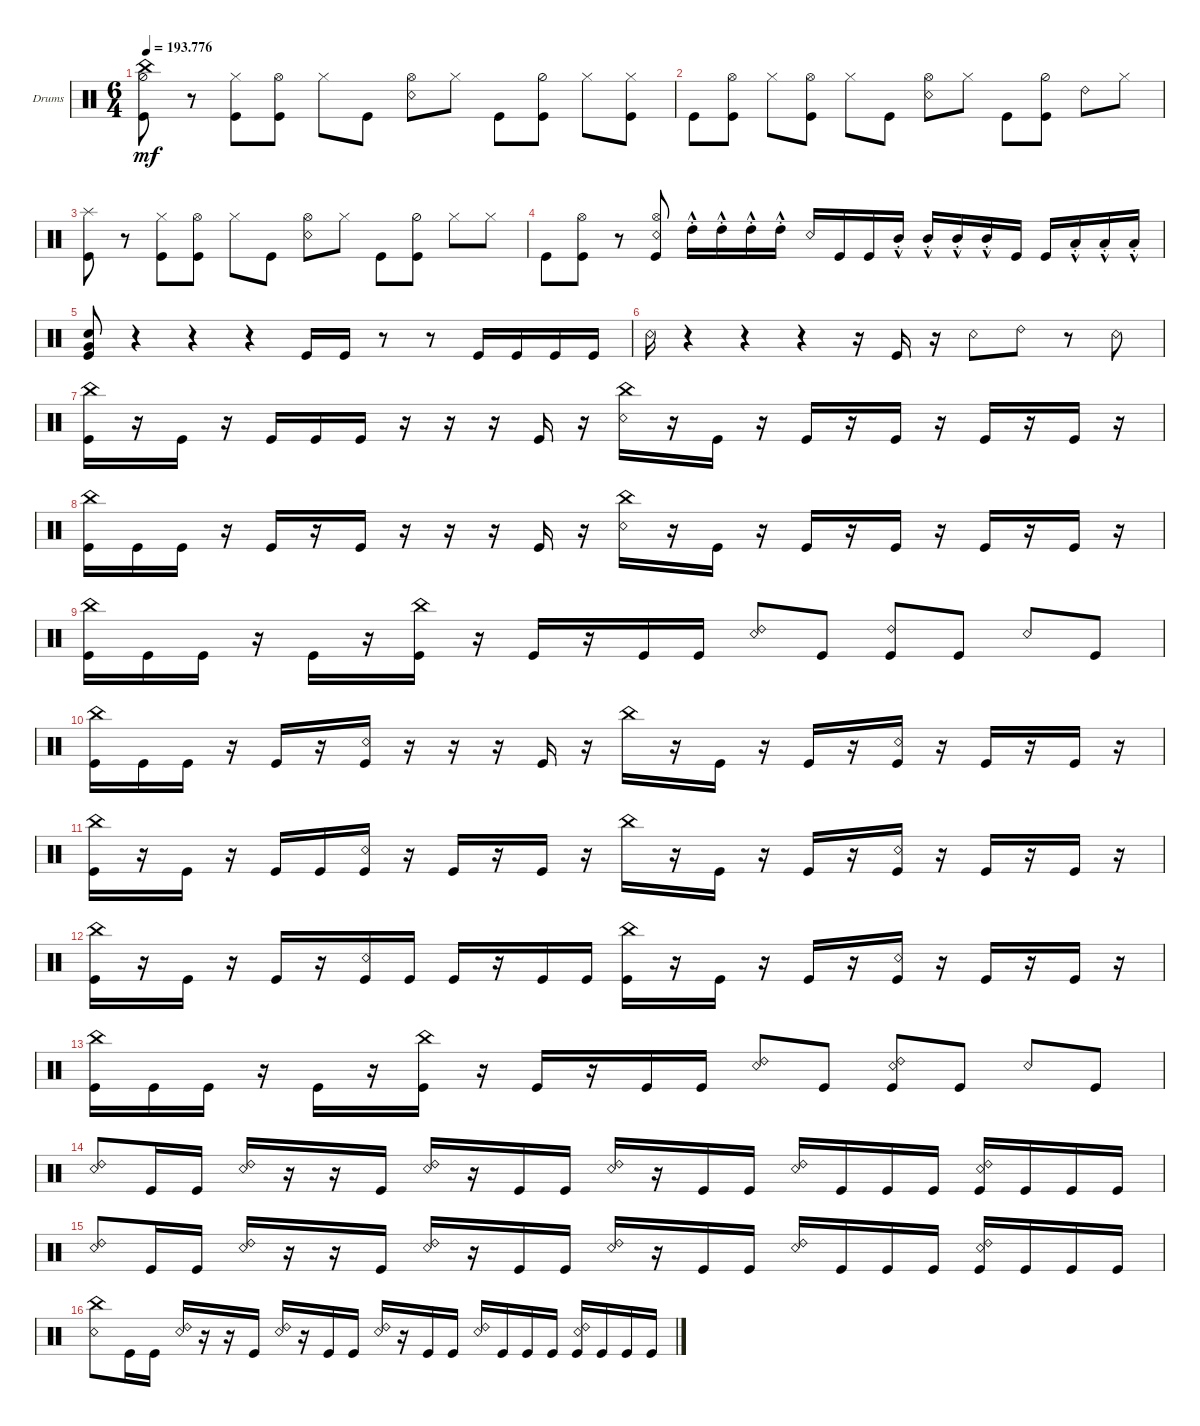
\defaultSystemsLayout 4
\bracketExtendMode groupsimilarinstruments
\firstSystemTrackNameOrientation horizontal
\otherSystemsTrackNameOrientation horizontal
\track ("Drumkit" "Drums") {multiBarRest instrument percussion}
\staff {score}
\articulation defaults
\ts (6 4)
\tempo
193.776
\accidentals auto
\clef neutral
\ottava regular
\simile none
\scale
0.333333
\ks c
("Kick (hit)" "Hi-Hat (half)" "China (hit)").8{dy mf} r.8 ("Hi-Hat (closed)" "Kick (hit)").8 ("Kick (hit)" "Hi-Hat (open)").8 "Hi-Hat (closed)".8 "Kick (hit)".8 ("Snare (rim shot)" "Hi-Hat (open)").8 "Hi-Hat (closed)".8 "Kick (hit)".8 ("Kick (hit)" "Hi-Hat (half)").8 "Hi-Hat (closed)".8 ("Hi-Hat (closed)" "Kick (hit)").8 |
\scale
0.333333 "Kick (hit)".8 ("Kick (hit)" "Hi-Hat (open)").8 "Hi-Hat (closed)".8 ("Kick (hit)" "Hi-Hat (open)").8 "Hi-Hat (closed)".8 "Kick (hit)".8 ("Snare (rim shot)" "Hi-Hat (open)").8 "Hi-Hat (closed)".8 "Kick (hit)".8 ("Kick (hit)" "Hi-Hat (half)").8 "Ride (bell) 2".8 "Hi-Hat (closed)".8 |
\scale
0.333333 ("Kick (hit)" "Splash (hit)").8 r.8 ("Hi-Hat (closed)" "Kick (hit)").8 ("Kick (hit)" "Hi-Hat (open)").8 "Hi-Hat (closed)".8 "Kick (hit)".8 ("Snare (rim shot)" "Hi-Hat (open)").8 "Hi-Hat (closed)".8 "Kick (hit)".8 ("Kick (hit)" "Hi-Hat (half)").8 "Hi-Hat (closed)".8 "Hi-Hat (closed)".8 |
\scale
0.333333 "Kick (hit)".8 ("Kick (hit)" "Hi-Hat (open)").8 r.8 ("Kick (hit)" "Hi-Hat (open)" "Snare (rim shot)").8 "High Tom (hit)"{hac st}.16 "High Tom (hit)"{hac st}.16 "High Tom (hit)"{hac st}.16 "High Tom (hit)"{hac st}.16 "Snare (rim shot)".16 "Kick (hit)".16 "Kick (hit)".16 "Mid Tom (hit)"{hac st}.16 "Mid Tom (hit)"{hac st}.16 "Mid Tom (hit)"{hac st}.16 "Mid Tom (hit)"{hac st}.16 "Kick (hit)".16 "Kick (hit)".16 "Low Tom (hit)"{hac st}.16 "Low Tom (hit)"{hac st}.16 "Low Tom (hit)"{hac st}.16 |
\scale
0.333333 ("Kick (hit)" "Very Low Tom (hit)" "Snare (hit) 2").8 r.4 r.4 r.4 "Kick (hit)".16 "Kick (hit)".16 r.8 r.8 "Kick (hit)".16 "Kick (hit)".16 "Kick (hit)".16 "Kick (hit)".16 |
"Snare (rim shot)".16 r.4 r.4 r.4 r.16 "Kick (hit)".16 r.16 "Snare (rim shot)".8 "Ride (bell) 2".8 r.8 "Snare (rim shot)".8 |
\scale
0.333333 ("Kick (hit)" "China (hit)").16 r.16 "Kick (hit)".16 r.16 "Kick (hit)".16 "Kick (hit)".16 "Kick (hit)".16 r.16 r.16 r.16 "Kick (hit)".16 r.16 ("Snare (rim shot)" "China (hit)").16 r.16 "Kick (hit)".16 r.16 "Kick (hit)".16 r.16 "Kick (hit)".16 r.16 "Kick (hit)".16 r.16 "Kick (hit)".16 r.16 |
\scale
0.333333 ("Kick (hit)" "China (hit)").16 "Kick (hit)".16 "Kick (hit)".16 r.16 "Kick (hit)".16 r.16 "Kick (hit)".16 r.16 r.16 r.16 "Kick (hit)".16 r.16 ("Snare (rim shot)" "China (hit)").16 r.16 "Kick (hit)".16 r.16 "Kick (hit)".16 r.16 "Kick (hit)".16 r.16 "Kick (hit)".16 r.16 "Kick (hit)".16 r.16 |
\scale
0.333333 ("Kick (hit)" "China (hit)").16 "Kick (hit)".16 "Kick (hit)".16 r.16 "Kick (hit)".16 r.16 ("Kick (hit)" "China (hit)").16 r.16 "Kick (hit)".16 r.16 "Kick (hit)".16 "Kick (hit)".16 ("Snare (rim shot)" "Ride (bell) 2").8 "Kick (hit)".8 ("Ride (bell) 2" "Kick (hit)").8 "Kick (hit)".8 "Snare (rim shot)".8 "Kick (hit)".8 |
\scale
0.333333 ("Kick (hit)" "China (hit)").16 "Kick (hit)".16 "Kick (hit)".16 r.16 "Kick (hit)".16 r.16 ("Kick (hit)" "Snare (rim shot)").16 r.16 r.16 r.16 "Kick (hit)".16 r.16 "China (hit)".16 r.16 "Kick (hit)".16 r.16 "Kick (hit)".16 r.16 ("Kick (hit)" "Snare (rim shot)").16 r.16 "Kick (hit)".16 r.16 "Kick (hit)".16 r.16 |
\scale
0.333333 ("Kick (hit)" "China (hit)").16 r.16 "Kick (hit)".16 r.16 "Kick (hit)".16 "Kick (hit)".16 ("Kick (hit)" "Snare (rim shot)").16 r.16 "Kick (hit)".16 r.16 "Kick (hit)".16 r.16 "China (hit)".16 r.16 "Kick (hit)".16 r.16 "Kick (hit)".16 r.16 ("Kick (hit)" "Snare (rim shot)").16 r.16 "Kick (hit)".16 r.16 "Kick (hit)".16 r.16 |
\scale
0.333333 ("Kick (hit)" "China (hit)").16 r.16 "Kick (hit)".16 r.16 "Kick (hit)".16 r.16 ("Kick (hit)" "Snare (rim shot)").16 "Kick (hit)".16 "Kick (hit)".16 r.16 "Kick (hit)".16 "Kick (hit)".16 ("Kick (hit)" "China (hit)").16 r.16 "Kick (hit)".16 r.16 "Kick (hit)".16 r.16 ("Kick (hit)" "Snare (rim shot)").16 r.16 "Kick (hit)".16 r.16 "Kick (hit)".16 r.16 |
\scale
0.333333 ("Kick (hit)" "China (hit)").16 "Kick (hit)".16 "Kick (hit)".16 r.16 "Kick (hit)".16 r.16 ("Kick (hit)" "China (hit)").16 r.16 "Kick (hit)".16 r.16 "Kick (hit)".16 "Kick (hit)".16 ("Snare (rim shot)" "Ride (bell) 2").8 "Kick (hit)".8 ("Ride (bell) 2" "Kick (hit)" "Snare (rim shot)").8 "Kick (hit)".8 "Snare (rim shot)".8 "Kick (hit)".8 |
\scale
0.264837
\scale
0.333333 ("Snare (rim shot)" "Ride (bell) 2").8 "Kick (hit)".16 "Kick (hit)".16 ("Snare (rim shot)" "Ride (bell) 2").16 r.16 r.16 "Kick (hit)".16 ("Ride (bell) 2" "Snare (rim shot)").16 r.16 "Kick (hit)".16 "Kick (hit)".16 ("Snare (rim shot)" "Ride (bell) 2").16 r.16 "Kick (hit)".16 "Kick (hit)".16 ("Snare (rim shot)" "Ride (bell) 2").16 "Kick (hit)".16 "Kick (hit)".16 "Kick (hit)".16 ("Kick (hit)" "Snare (rim shot)" "Ride (bell) 2").16 "Kick (hit)".16 "Kick (hit)".16 "Kick (hit)".16 |
\scale
0.245054
\scale
0.333333 ("Snare (rim shot)" "Ride (bell) 2").8 "Kick (hit)".16 "Kick (hit)".16 ("Snare (rim shot)" "Ride (bell) 2").16 r.16 r.16 "Kick (hit)".16 ("Ride (bell) 2" "Snare (rim shot)").16 r.16 "Kick (hit)".16 "Kick (hit)".16 ("Snare (rim shot)" "Ride (bell) 2").16 r.16 "Kick (hit)".16 "Kick (hit)".16 ("Snare (rim shot)" "Ride (bell) 2").16 "Kick (hit)".16 "Kick (hit)".16 "Kick (hit)".16 ("Kick (hit)" "Snare (rim shot)" "Ride (bell) 2").16 "Kick (hit)".16 "Kick (hit)".16 "Kick (hit)".16 |
\scale
0.245054
\scale
0.333333 ("Snare (rim shot)" "China (hit)").8 "Kick (hit)".16 "Kick (hit)".16 ("Snare (rim shot)" "Ride (bell) 2").16 r.16 r.16 "Kick (hit)".16 ("Ride (bell) 2" "Snare (rim shot)").16 r.16 "Kick (hit)".16 "Kick (hit)".16 ("Snare (rim shot)" "Ride (bell) 2").16 r.16 "Kick (hit)".16 "Kick (hit)".16 ("Snare (rim shot)" "Ride (bell) 2").16 "Kick (hit)".16 "Kick (hit)".16 "Kick (hit)".16 ("Kick (hit)" "Snare (rim shot)" "Ride (bell) 2").16 "Kick (hit)".16 "Kick (hit)".16 "Kick (hit)".16
